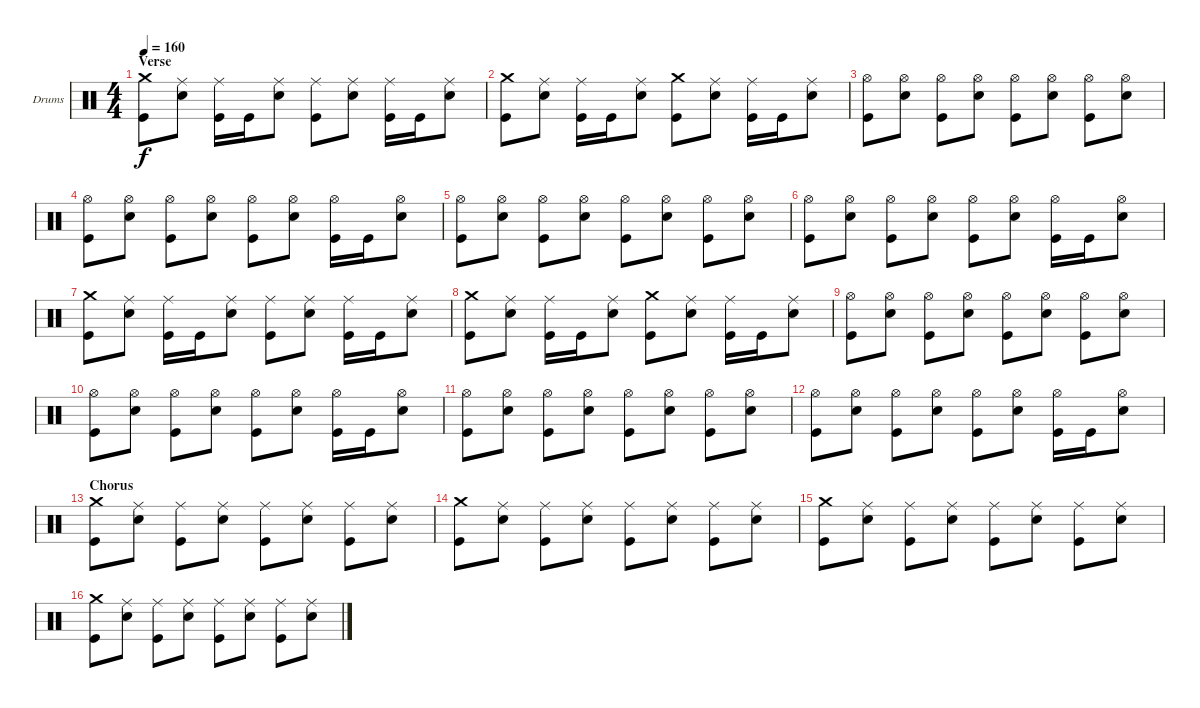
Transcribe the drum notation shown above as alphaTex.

\bracketExtendMode groupsimilarinstruments
\firstSystemTrackNameOrientation horizontal
\otherSystemsTrackNameOrientation horizontal
\track ("Drums" "Drums") {instrument percussion}
\staff {score}
\articulation defaults
\ts (4 4)
\section ("" "Verse")
\tempo 160
\clef neutral
\ks c
("Crash medium (hit)" "Kick (hit)").8{dy f} ("Ride (middle)" "Snare (hit) 2").8 ("Ride (middle)" "Kick (hit)").16 "Kick (hit)".16 ("Ride (middle)" "Snare (hit) 2").8 ("Ride (middle)" "Kick (hit)").8 ("Ride (middle)" "Snare (hit) 2").8 ("Ride (middle)" "Kick (hit)").16 "Kick (hit)".16 ("Ride (middle)" "Snare (hit) 2").8 |
("Crash medium (hit)" "Kick (hit)").8 ("Ride (middle)" "Snare (hit) 2").8 ("Ride (middle)" "Kick (hit)").16 "Kick (hit)".16 ("Ride (middle)" "Snare (hit) 2").8 ("Crash medium (hit)" "Kick (hit)").8 ("Ride (middle)" "Snare (hit) 2").8 ("Ride (middle)" "Kick (hit)").16 "Kick (hit)".16 ("Ride (middle)" "Snare (hit) 2").8 |
("Hi-Hat (open)" "Kick (hit)").8 ("Hi-Hat (open)" "Snare (hit) 2").8 ("Hi-Hat (open)" "Kick (hit)").8 ("Hi-Hat (open)" "Snare (hit) 2").8 ("Hi-Hat (open)" "Kick (hit)").8 ("Hi-Hat (open)" "Snare (hit) 2").8 ("Hi-Hat (open)" "Kick (hit)").8 ("Hi-Hat (open)" "Snare (hit) 2").8 |
("Hi-Hat (open)" "Kick (hit)").8 ("Hi-Hat (open)" "Snare (hit) 2").8 ("Hi-Hat (open)" "Kick (hit)").8 ("Hi-Hat (open)" "Snare (hit) 2").8 ("Hi-Hat (open)" "Kick (hit)").8 ("Hi-Hat (open)" "Snare (hit) 2").8 ("Hi-Hat (open)" "Kick (hit)").16 "Kick (hit)".16 ("Hi-Hat (open)" "Snare (hit) 2").8 |
("Hi-Hat (open)" "Kick (hit)").8 ("Hi-Hat (open)" "Snare (hit) 2").8 ("Hi-Hat (open)" "Kick (hit)").8 ("Hi-Hat (open)" "Snare (hit) 2").8 ("Hi-Hat (open)" "Kick (hit)").8 ("Hi-Hat (open)" "Snare (hit) 2").8 ("Hi-Hat (open)" "Kick (hit)").8 ("Hi-Hat (open)" "Snare (hit) 2").8 |
("Hi-Hat (open)" "Kick (hit)").8 ("Hi-Hat (open)" "Snare (hit) 2").8 ("Hi-Hat (open)" "Kick (hit)").8 ("Hi-Hat (open)" "Snare (hit) 2").8 ("Hi-Hat (open)" "Kick (hit)").8 ("Hi-Hat (open)" "Snare (hit) 2").8 ("Hi-Hat (open)" "Kick (hit)").16 "Kick (hit)".16 ("Hi-Hat (open)" "Snare (hit) 2").8 |
("Crash medium (hit)" "Kick (hit)").8 ("Ride (middle)" "Snare (hit) 2").8 ("Ride (middle)" "Kick (hit)").16 "Kick (hit)".16 ("Ride (middle)" "Snare (hit) 2").8 ("Ride (middle)" "Kick (hit)").8 ("Ride (middle)" "Snare (hit) 2").8 ("Ride (middle)" "Kick (hit)").16 "Kick (hit)".16 ("Ride (middle)" "Snare (hit) 2").8 |
("Crash medium (hit)" "Kick (hit)").8 ("Ride (middle)" "Snare (hit) 2").8 ("Ride (middle)" "Kick (hit)").16 "Kick (hit)".16 ("Ride (middle)" "Snare (hit) 2").8 ("Crash medium (hit)" "Kick (hit)").8 ("Ride (middle)" "Snare (hit) 2").8 ("Ride (middle)" "Kick (hit)").16 "Kick (hit)".16 ("Ride (middle)" "Snare (hit) 2").8 |
("Hi-Hat (open)" "Kick (hit)").8 ("Hi-Hat (open)" "Snare (hit) 2").8 ("Hi-Hat (open)" "Kick (hit)").8 ("Hi-Hat (open)" "Snare (hit) 2").8 ("Hi-Hat (open)" "Kick (hit)").8 ("Hi-Hat (open)" "Snare (hit) 2").8 ("Hi-Hat (open)" "Kick (hit)").8 ("Hi-Hat (open)" "Snare (hit) 2").8 |
("Hi-Hat (open)" "Kick (hit)").8 ("Hi-Hat (open)" "Snare (hit) 2").8 ("Hi-Hat (open)" "Kick (hit)").8 ("Hi-Hat (open)" "Snare (hit) 2").8 ("Hi-Hat (open)" "Kick (hit)").8 ("Hi-Hat (open)" "Snare (hit) 2").8 ("Hi-Hat (open)" "Kick (hit)").16 "Kick (hit)".16 ("Hi-Hat (open)" "Snare (hit) 2").8 |
("Hi-Hat (open)" "Kick (hit)").8 ("Hi-Hat (open)" "Snare (hit) 2").8 ("Hi-Hat (open)" "Kick (hit)").8 ("Hi-Hat (open)" "Snare (hit) 2").8 ("Hi-Hat (open)" "Kick (hit)").8 ("Hi-Hat (open)" "Snare (hit) 2").8 ("Hi-Hat (open)" "Kick (hit)").8 ("Hi-Hat (open)" "Snare (hit) 2").8 |
("Hi-Hat (open)" "Kick (hit)").8 ("Hi-Hat (open)" "Snare (hit) 2").8 ("Hi-Hat (open)" "Kick (hit)").8 ("Hi-Hat (open)" "Snare (hit) 2").8 ("Hi-Hat (open)" "Kick (hit)").8 ("Hi-Hat (open)" "Snare (hit) 2").8 ("Hi-Hat (open)" "Kick (hit)").16 "Kick (hit)".16 ("Hi-Hat (open)" "Snare (hit) 2").8 |
\section ("" "Chorus")
("Crash medium (hit)" "Kick (hit)").8 ("Ride (middle)" "Snare (hit) 2").8 ("Ride (middle)" "Kick (hit)").8 ("Ride (middle)" "Snare (hit) 2").8 ("Ride (middle)" "Kick (hit)").8 ("Ride (middle)" "Snare (hit) 2").8 ("Ride (middle)" "Kick (hit)").8 ("Ride (middle)" "Snare (hit) 2").8 |
("Crash medium (hit)" "Kick (hit)").8 ("Ride (middle)" "Snare (hit) 2").8 ("Ride (middle)" "Kick (hit)").8 ("Ride (middle)" "Snare (hit) 2").8 ("Ride (middle)" "Kick (hit)").8 ("Ride (middle)" "Snare (hit) 2").8 ("Ride (middle)" "Kick (hit)").8 ("Ride (middle)" "Snare (hit) 2").8 |
("Crash medium (hit)" "Kick (hit)").8 ("Ride (middle)" "Snare (hit) 2").8 ("Ride (middle)" "Kick (hit)").8 ("Ride (middle)" "Snare (hit) 2").8 ("Ride (middle)" "Kick (hit)").8 ("Ride (middle)" "Snare (hit) 2").8 ("Ride (middle)" "Kick (hit)").8 ("Ride (middle)" "Snare (hit) 2").8 |
("Crash medium (hit)" "Kick (hit)").8 ("Ride (middle)" "Snare (hit) 2").8 ("Ride (middle)" "Kick (hit)").8 ("Ride (middle)" "Snare (hit) 2").8 ("Ride (middle)" "Kick (hit)").8 ("Ride (middle)" "Snare (hit) 2").8 ("Ride (middle)" "Kick (hit)").8 ("Ride (middle)" "Snare (hit) 2").8
